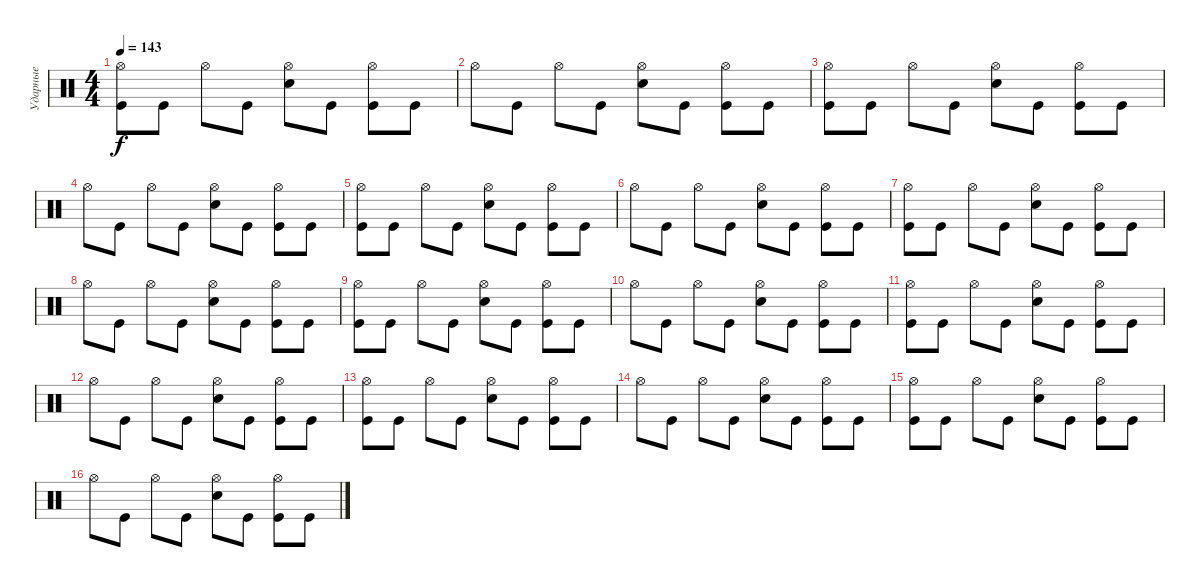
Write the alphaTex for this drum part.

\track ("Ударные" "Ударные") {instrument percussion}
\staff {score}
\articulation defaults
\ts (4 4)
\tempo 143
\clef neutral
\ks c
("Hi-Hat (open)" "Kick (hit)").8{dy f} "Kick (hit)".8 "Hi-Hat (open)".8 "Kick (hit)".8 ("Hi-Hat (open)" "Electric Snare (hit)").8 "Kick (hit)".8 ("Hi-Hat (open)" "Kick (hit)").8 "Kick (hit)".8 |
"Hi-Hat (open)".8 "Kick (hit)".8 "Hi-Hat (open)".8 "Kick (hit)".8 ("Hi-Hat (open)" "Electric Snare (hit)").8 "Kick (hit)".8 ("Hi-Hat (open)" "Kick (hit)").8 "Kick (hit)".8 |
("Hi-Hat (open)" "Kick (hit)").8 "Kick (hit)".8 "Hi-Hat (open)".8 "Kick (hit)".8 ("Hi-Hat (open)" "Electric Snare (hit)").8 "Kick (hit)".8 ("Hi-Hat (open)" "Kick (hit)").8 "Kick (hit)".8 |
"Hi-Hat (open)".8 "Kick (hit)".8 "Hi-Hat (open)".8 "Kick (hit)".8 ("Hi-Hat (open)" "Electric Snare (hit)").8 "Kick (hit)".8 ("Hi-Hat (open)" "Kick (hit)").8 "Kick (hit)".8 |
("Hi-Hat (open)" "Kick (hit)").8 "Kick (hit)".8 "Hi-Hat (open)".8 "Kick (hit)".8 ("Hi-Hat (open)" "Electric Snare (hit)").8 "Kick (hit)".8 ("Hi-Hat (open)" "Kick (hit)").8 "Kick (hit)".8 |
"Hi-Hat (open)".8 "Kick (hit)".8 "Hi-Hat (open)".8 "Kick (hit)".8 ("Hi-Hat (open)" "Electric Snare (hit)").8 "Kick (hit)".8 ("Hi-Hat (open)" "Kick (hit)").8 "Kick (hit)".8 |
("Hi-Hat (open)" "Kick (hit)").8 "Kick (hit)".8 "Hi-Hat (open)".8 "Kick (hit)".8 ("Hi-Hat (open)" "Electric Snare (hit)").8 "Kick (hit)".8 ("Hi-Hat (open)" "Kick (hit)").8 "Kick (hit)".8 |
"Hi-Hat (open)".8 "Kick (hit)".8 "Hi-Hat (open)".8 "Kick (hit)".8 ("Hi-Hat (open)" "Electric Snare (hit)").8 "Kick (hit)".8 ("Hi-Hat (open)" "Kick (hit)").8 "Kick (hit)".8 |
("Hi-Hat (open)" "Kick (hit)").8 "Kick (hit)".8 "Hi-Hat (open)".8 "Kick (hit)".8 ("Hi-Hat (open)" "Electric Snare (hit)").8 "Kick (hit)".8 ("Hi-Hat (open)" "Kick (hit)").8 "Kick (hit)".8 |
"Hi-Hat (open)".8 "Kick (hit)".8 "Hi-Hat (open)".8 "Kick (hit)".8 ("Hi-Hat (open)" "Electric Snare (hit)").8 "Kick (hit)".8 ("Hi-Hat (open)" "Kick (hit)").8 "Kick (hit)".8 |
("Hi-Hat (open)" "Kick (hit)").8 "Kick (hit)".8 "Hi-Hat (open)".8 "Kick (hit)".8 ("Hi-Hat (open)" "Electric Snare (hit)").8 "Kick (hit)".8 ("Hi-Hat (open)" "Kick (hit)").8 "Kick (hit)".8 |
"Hi-Hat (open)".8 "Kick (hit)".8 "Hi-Hat (open)".8 "Kick (hit)".8 ("Hi-Hat (open)" "Electric Snare (hit)").8 "Kick (hit)".8 ("Hi-Hat (open)" "Kick (hit)").8 "Kick (hit)".8 |
("Hi-Hat (open)" "Kick (hit)").8 "Kick (hit)".8 "Hi-Hat (open)".8 "Kick (hit)".8 ("Hi-Hat (open)" "Electric Snare (hit)").8 "Kick (hit)".8 ("Hi-Hat (open)" "Kick (hit)").8 "Kick (hit)".8 |
"Hi-Hat (open)".8 "Kick (hit)".8 "Hi-Hat (open)".8 "Kick (hit)".8 ("Hi-Hat (open)" "Electric Snare (hit)").8 "Kick (hit)".8 ("Hi-Hat (open)" "Kick (hit)").8 "Kick (hit)".8 |
("Hi-Hat (open)" "Kick (hit)").8 "Kick (hit)".8 "Hi-Hat (open)".8 "Kick (hit)".8 ("Hi-Hat (open)" "Electric Snare (hit)").8 "Kick (hit)".8 ("Hi-Hat (open)" "Kick (hit)").8 "Kick (hit)".8 |
"Hi-Hat (open)".8 "Kick (hit)".8 "Hi-Hat (open)".8 "Kick (hit)".8 ("Hi-Hat (open)" "Electric Snare (hit)").8 "Kick (hit)".8 ("Hi-Hat (open)" "Kick (hit)").8 "Kick (hit)".8
